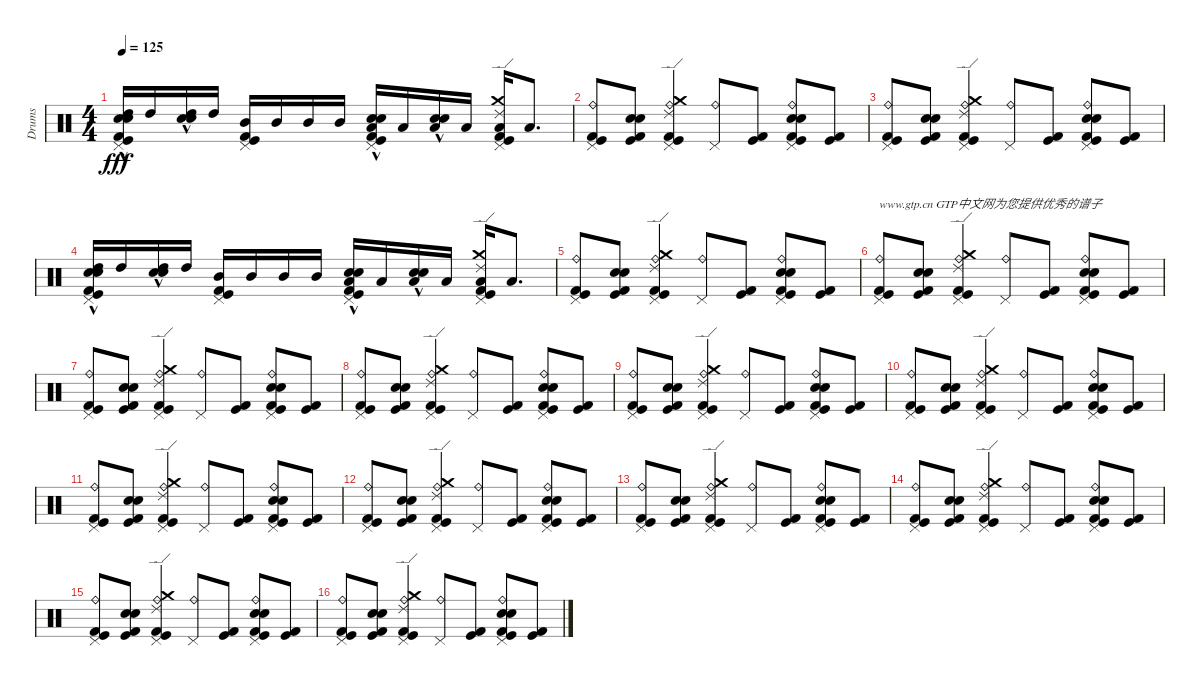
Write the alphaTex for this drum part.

\track ("Drums" "Drums") {instrument percussion}
\staff {score}
\articulation defaults
\ts (4 4)
\tempo 125
\clef neutral
\ks c
("Pedal Hi-Hat (hit)" "Electric Snare (hit)"{hac} "Snare (hit) 2"{hac} "Kick (hit) 2"{hac} "Kick (hit)"{hac} "High Tom (hit)").16{dy fff} "High Tom (hit)".16 ("Electric Snare (hit)"{hac} "Snare (hit) 2"{hac} "High Tom (hit)").16 "High Tom (hit)".16 ("Pedal Hi-Hat (hit)" "Mid Tom (hit)" "Kick (hit) 2" "Kick (hit)").16 "Mid Tom (hit)".16 "Mid Tom (hit)".16 "Mid Tom (hit)".16 ("Pedal Hi-Hat (hit)" "Electric Snare (hit)"{hac} "Snare (hit) 2"{hac} "Kick (hit) 2"{hac} "Kick (hit)"{hac} "Low Tom (hit)").16 "Low Tom (hit)".16 ("Electric Snare (hit)"{hac} "Snare (hit) 2"{hac} "Low Tom (hit)").16 "Low Tom (hit)".16 ("Pedal Hi-Hat (hit)" "Low Floor Tom (hit)" "Kick (hit)" "Kick (hit) 2" "Crash medium (hit)" "Ride (edge) 2").16 "Low Floor Tom (hit)".8{d} |
("Pedal Hi-Hat (hit)" "Kick (hit) 2" "Kick (hit)" "Ride (bell)").8 ("Electric Snare (hit)" "Snare (hit) 2" "Kick (hit)" "Kick (hit) 2").8 ("Pedal Hi-Hat (hit)" "Kick (hit) 2" "Kick (hit)" "Ride (bell)" "Crash medium (hit)" "Ride (edge) 2").4 ("Pedal Hi-Hat (hit)" "Ride (bell)").8 ("Kick (hit) 2" "Kick (hit)").8 ("Pedal Hi-Hat (hit)" "Electric Snare (hit)" "Snare (hit) 2" "Kick (hit) 2" "Kick (hit)" "Ride (bell)").8 ("Kick (hit) 2" "Kick (hit)").8 |
("Pedal Hi-Hat (hit)" "Kick (hit) 2" "Kick (hit)" "Ride (bell)").8 ("Electric Snare (hit)" "Snare (hit) 2" "Kick (hit)" "Kick (hit) 2").8 ("Pedal Hi-Hat (hit)" "Kick (hit) 2" "Kick (hit)" "Ride (bell)" "Crash medium (hit)" "Ride (edge) 2").4 ("Pedal Hi-Hat (hit)" "Ride (bell)").8 ("Kick (hit) 2" "Kick (hit)").8 ("Pedal Hi-Hat (hit)" "Electric Snare (hit)" "Snare (hit) 2" "Kick (hit) 2" "Kick (hit)" "Ride (bell)").8 ("Kick (hit) 2" "Kick (hit)").8 |
("Pedal Hi-Hat (hit)" "Electric Snare (hit)"{hac} "Snare (hit) 2"{hac} "Kick (hit) 2"{hac} "Kick (hit)"{hac} "High Tom (hit)").16 "High Tom (hit)".16 ("Electric Snare (hit)"{hac} "Snare (hit) 2"{hac} "High Tom (hit)").16 "High Tom (hit)".16 ("Pedal Hi-Hat (hit)" "Mid Tom (hit)" "Kick (hit) 2" "Kick (hit)").16 "Mid Tom (hit)".16 "Mid Tom (hit)".16 "Mid Tom (hit)".16 ("Pedal Hi-Hat (hit)" "Electric Snare (hit)"{hac} "Snare (hit) 2"{hac} "Kick (hit) 2"{hac} "Kick (hit)"{hac} "Low Tom (hit)").16 "Low Tom (hit)".16 ("Electric Snare (hit)"{hac} "Snare (hit) 2"{hac} "Low Tom (hit)").16 "Low Tom (hit)".16 ("Pedal Hi-Hat (hit)" "Low Floor Tom (hit)" "Kick (hit)" "Kick (hit) 2" "Crash medium (hit)" "Ride (edge) 2").16 "Low Floor Tom (hit)".8{d} |
("Pedal Hi-Hat (hit)" "Kick (hit) 2" "Kick (hit)" "Ride (bell)").8 ("Electric Snare (hit)" "Snare (hit) 2" "Kick (hit)" "Kick (hit) 2").8 ("Pedal Hi-Hat (hit)" "Kick (hit) 2" "Kick (hit)" "Ride (bell)" "Crash medium (hit)" "Ride (edge) 2").4 ("Pedal Hi-Hat (hit)" "Ride (bell)").8 ("Kick (hit) 2" "Kick (hit)").8 ("Pedal Hi-Hat (hit)" "Electric Snare (hit)" "Snare (hit) 2" "Kick (hit) 2" "Kick (hit)" "Ride (bell)").8 ("Kick (hit) 2" "Kick (hit)").8 |
("Pedal Hi-Hat (hit)" "Kick (hit) 2" "Kick (hit)" "Ride (bell)").8{txt "www.gtp.cn GTP中文网为您提供优秀的谱子"} ("Electric Snare (hit)" "Snare (hit) 2" "Kick (hit)" "Kick (hit) 2").8 ("Pedal Hi-Hat (hit)" "Kick (hit) 2" "Kick (hit)" "Ride (bell)" "Crash medium (hit)" "Ride (edge) 2").4 ("Pedal Hi-Hat (hit)" "Ride (bell)").8 ("Kick (hit) 2" "Kick (hit)").8 ("Pedal Hi-Hat (hit)" "Electric Snare (hit)" "Snare (hit) 2" "Kick (hit) 2" "Kick (hit)" "Ride (bell)").8 ("Kick (hit) 2" "Kick (hit)").8 |
("Pedal Hi-Hat (hit)" "Kick (hit) 2" "Kick (hit)" "Ride (bell)").8 ("Electric Snare (hit)" "Snare (hit) 2" "Kick (hit)" "Kick (hit) 2").8 ("Pedal Hi-Hat (hit)" "Kick (hit) 2" "Kick (hit)" "Ride (bell)" "Crash medium (hit)" "Ride (edge) 2").4 ("Pedal Hi-Hat (hit)" "Ride (bell)").8 ("Kick (hit) 2" "Kick (hit)").8 ("Pedal Hi-Hat (hit)" "Electric Snare (hit)" "Snare (hit) 2" "Kick (hit) 2" "Kick (hit)" "Ride (bell)").8 ("Kick (hit) 2" "Kick (hit)").8 |
("Pedal Hi-Hat (hit)" "Kick (hit) 2" "Kick (hit)" "Ride (bell)").8 ("Electric Snare (hit)" "Snare (hit) 2" "Kick (hit)" "Kick (hit) 2").8 ("Pedal Hi-Hat (hit)" "Kick (hit) 2" "Kick (hit)" "Ride (bell)" "Crash medium (hit)" "Ride (edge) 2").4 ("Pedal Hi-Hat (hit)" "Ride (bell)").8 ("Kick (hit) 2" "Kick (hit)").8 ("Pedal Hi-Hat (hit)" "Electric Snare (hit)" "Snare (hit) 2" "Kick (hit) 2" "Kick (hit)" "Ride (bell)").8 ("Kick (hit) 2" "Kick (hit)").8 |
("Pedal Hi-Hat (hit)" "Kick (hit) 2" "Kick (hit)" "Ride (bell)").8 ("Electric Snare (hit)" "Snare (hit) 2" "Kick (hit)" "Kick (hit) 2").8 ("Pedal Hi-Hat (hit)" "Kick (hit) 2" "Kick (hit)" "Ride (bell)" "Crash medium (hit)" "Ride (edge) 2").4 ("Pedal Hi-Hat (hit)" "Ride (bell)").8 ("Kick (hit) 2" "Kick (hit)").8 ("Pedal Hi-Hat (hit)" "Electric Snare (hit)" "Snare (hit) 2" "Kick (hit) 2" "Kick (hit)" "Ride (bell)").8 ("Kick (hit) 2" "Kick (hit)").8 |
("Pedal Hi-Hat (hit)" "Kick (hit) 2" "Kick (hit)" "Ride (bell)").8 ("Electric Snare (hit)" "Snare (hit) 2" "Kick (hit)" "Kick (hit) 2").8 ("Pedal Hi-Hat (hit)" "Kick (hit) 2" "Kick (hit)" "Ride (bell)" "Crash medium (hit)" "Ride (edge) 2").4 ("Pedal Hi-Hat (hit)" "Ride (bell)").8 ("Kick (hit) 2" "Kick (hit)").8 ("Pedal Hi-Hat (hit)" "Electric Snare (hit)" "Snare (hit) 2" "Kick (hit) 2" "Kick (hit)" "Ride (bell)").8 ("Kick (hit) 2" "Kick (hit)").8 |
("Pedal Hi-Hat (hit)" "Kick (hit) 2" "Kick (hit)" "Ride (bell)").8 ("Electric Snare (hit)" "Snare (hit) 2" "Kick (hit)" "Kick (hit) 2").8 ("Pedal Hi-Hat (hit)" "Kick (hit) 2" "Kick (hit)" "Ride (bell)" "Crash medium (hit)" "Ride (edge) 2").4 ("Pedal Hi-Hat (hit)" "Ride (bell)").8 ("Kick (hit) 2" "Kick (hit)").8 ("Pedal Hi-Hat (hit)" "Electric Snare (hit)" "Snare (hit) 2" "Kick (hit) 2" "Kick (hit)" "Ride (bell)").8 ("Kick (hit) 2" "Kick (hit)").8 |
("Pedal Hi-Hat (hit)" "Kick (hit) 2" "Kick (hit)" "Ride (bell)").8 ("Electric Snare (hit)" "Snare (hit) 2" "Kick (hit)" "Kick (hit) 2").8 ("Pedal Hi-Hat (hit)" "Kick (hit) 2" "Kick (hit)" "Ride (bell)" "Crash medium (hit)" "Ride (edge) 2").4 ("Pedal Hi-Hat (hit)" "Ride (bell)").8 ("Kick (hit) 2" "Kick (hit)").8 ("Pedal Hi-Hat (hit)" "Electric Snare (hit)" "Snare (hit) 2" "Kick (hit) 2" "Kick (hit)" "Ride (bell)").8 ("Kick (hit) 2" "Kick (hit)").8 |
("Pedal Hi-Hat (hit)" "Kick (hit) 2" "Kick (hit)" "Ride (bell)").8 ("Electric Snare (hit)" "Snare (hit) 2" "Kick (hit)" "Kick (hit) 2").8 ("Pedal Hi-Hat (hit)" "Kick (hit) 2" "Kick (hit)" "Ride (bell)" "Crash medium (hit)" "Ride (edge) 2").4 ("Pedal Hi-Hat (hit)" "Ride (bell)").8 ("Kick (hit) 2" "Kick (hit)").8 ("Pedal Hi-Hat (hit)" "Electric Snare (hit)" "Snare (hit) 2" "Kick (hit) 2" "Kick (hit)" "Ride (bell)").8 ("Kick (hit) 2" "Kick (hit)").8 |
("Pedal Hi-Hat (hit)" "Kick (hit) 2" "Kick (hit)" "Ride (bell)").8 ("Electric Snare (hit)" "Snare (hit) 2" "Kick (hit)" "Kick (hit) 2").8 ("Pedal Hi-Hat (hit)" "Kick (hit) 2" "Kick (hit)" "Ride (bell)" "Crash medium (hit)" "Ride (edge) 2").4 ("Pedal Hi-Hat (hit)" "Ride (bell)").8 ("Kick (hit) 2" "Kick (hit)").8 ("Pedal Hi-Hat (hit)" "Electric Snare (hit)" "Snare (hit) 2" "Kick (hit) 2" "Kick (hit)" "Ride (bell)").8 ("Kick (hit) 2" "Kick (hit)").8 |
("Pedal Hi-Hat (hit)" "Kick (hit) 2" "Kick (hit)" "Ride (bell)").8 ("Electric Snare (hit)" "Snare (hit) 2" "Kick (hit)" "Kick (hit) 2").8 ("Pedal Hi-Hat (hit)" "Kick (hit) 2" "Kick (hit)" "Ride (bell)" "Crash medium (hit)" "Ride (edge) 2").4 ("Pedal Hi-Hat (hit)" "Ride (bell)").8 ("Kick (hit) 2" "Kick (hit)").8 ("Pedal Hi-Hat (hit)" "Electric Snare (hit)" "Snare (hit) 2" "Kick (hit) 2" "Kick (hit)" "Ride (bell)").8 ("Kick (hit) 2" "Kick (hit)").8 |
("Pedal Hi-Hat (hit)" "Kick (hit) 2" "Kick (hit)" "Ride (bell)").8 ("Electric Snare (hit)" "Snare (hit) 2" "Kick (hit)" "Kick (hit) 2").8 ("Pedal Hi-Hat (hit)" "Kick (hit) 2" "Kick (hit)" "Ride (bell)" "Crash medium (hit)" "Ride (edge) 2").4 ("Pedal Hi-Hat (hit)" "Ride (bell)").8 ("Kick (hit) 2" "Kick (hit)").8 ("Pedal Hi-Hat (hit)" "Electric Snare (hit)" "Snare (hit) 2" "Kick (hit) 2" "Kick (hit)" "Ride (bell)").8 ("Kick (hit) 2" "Kick (hit)").8
